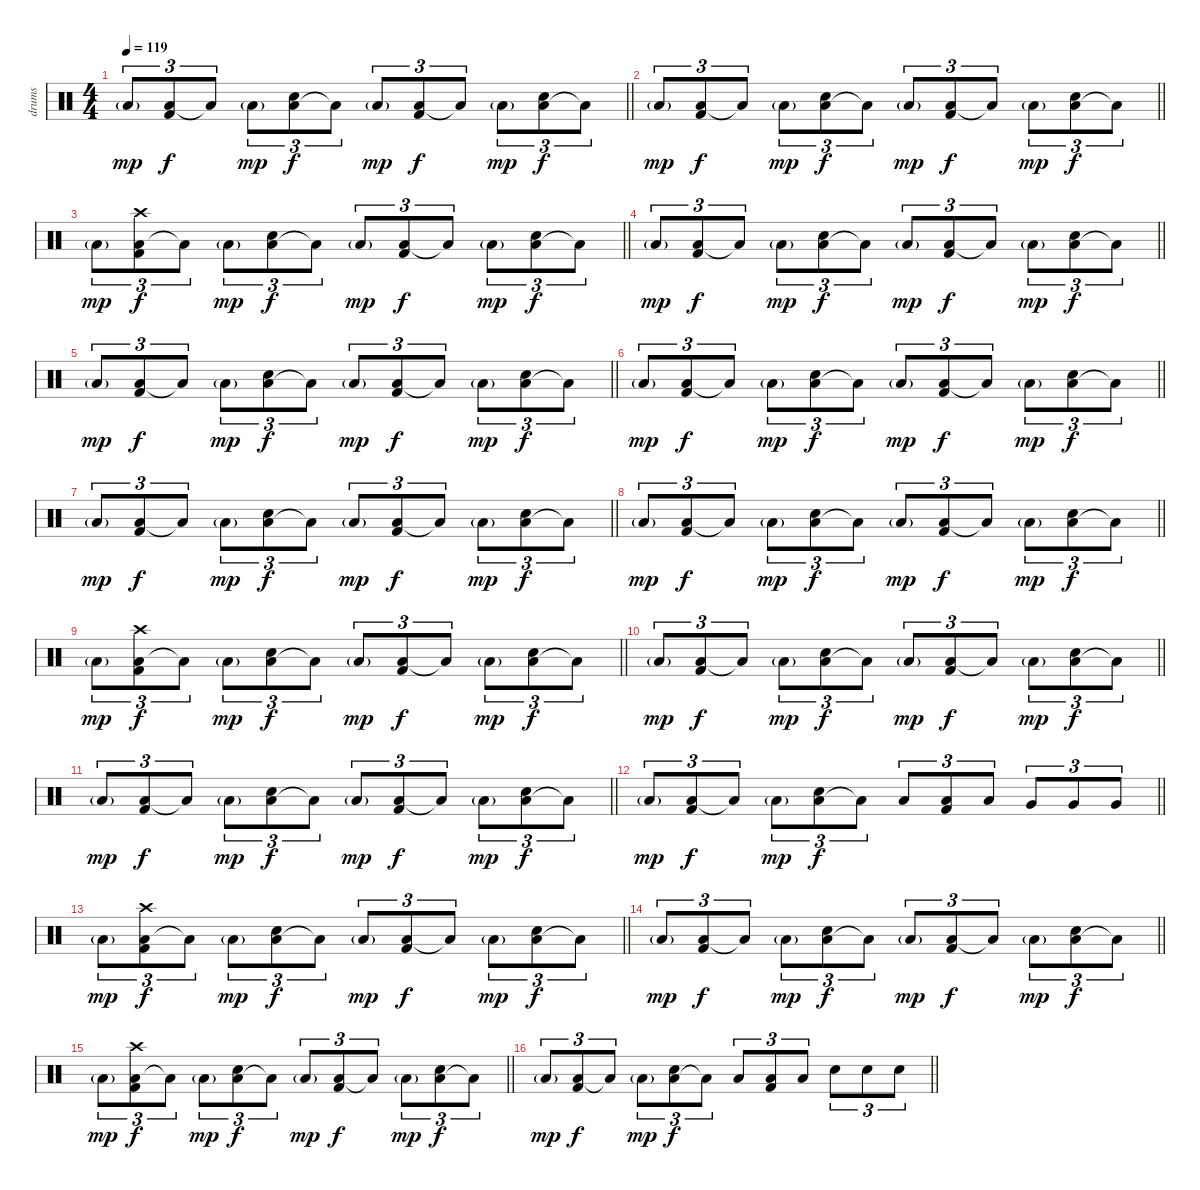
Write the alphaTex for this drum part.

\track ("drums" "drums") {instrument percussion}
\staff {score}
\articulation defaults
\ts (4 4)
\tempo 119
\clef neutral
\barLineRight lightlight
\ks c "Low Floor Tom (hit)"{g}.8{tu (3 2) dy mp}
("Low Floor Tom (hit)" "Kick (hit) 2").8{tu (3 2) dy f} "Low Floor Tom (hit)"{t}.8{tu (3 2)} "Low Floor Tom (hit)"{g}.8{tu (3 2) dy mp} ("Low Floor Tom (hit)" "Electric Snare (hit)").8{tu (3 2) dy f} "Low Floor Tom (hit)"{t}.8{tu (3 2)} "Low Floor Tom (hit)"{g}.8{tu (3 2) dy mp} ("Low Floor Tom (hit)" "Kick (hit) 2").8{tu (3 2) dy f} "Low Floor Tom (hit)"{t}.8{tu (3 2)} "Low Floor Tom (hit)"{g}.8{tu (3 2) dy mp} ("Low Floor Tom (hit)" "Electric Snare (hit)").8{tu (3 2) dy f} "Low Floor Tom (hit)"{t}.8{tu (3 2)} |
\barLineRight lightlight "Low Floor Tom (hit)"{g}.8{tu (3 2) dy mp}
("Low Floor Tom (hit)" "Kick (hit) 2").8{tu (3 2) dy f} "Low Floor Tom (hit)"{t}.8{tu (3 2)} "Low Floor Tom (hit)"{g}.8{tu (3 2) dy mp} ("Low Floor Tom (hit)" "Electric Snare (hit)").8{tu (3 2) dy f} "Low Floor Tom (hit)"{t}.8{tu (3 2)} "Low Floor Tom (hit)"{g}.8{tu (3 2) dy mp} ("Low Floor Tom (hit)" "Kick (hit) 2").8{tu (3 2) dy f} "Low Floor Tom (hit)"{t}.8{tu (3 2)} "Low Floor Tom (hit)"{g}.8{tu (3 2) dy mp} ("Low Floor Tom (hit)" "Electric Snare (hit)").8{tu (3 2) dy f} "Low Floor Tom (hit)"{t}.8{tu (3 2)} |
\barLineRight lightlight "Low Floor Tom (hit)"{g}.8{tu (3 2) dy mp}
("Low Floor Tom (hit)" "Kick (hit) 2" "Crash high (hit)").8{tu (3 2) dy f} "Low Floor Tom (hit)"{t}.8{tu (3 2)} "Low Floor Tom (hit)"{g}.8{tu (3 2) dy mp} ("Low Floor Tom (hit)" "Electric Snare (hit)").8{tu (3 2) dy f} "Low Floor Tom (hit)"{t}.8{tu (3 2)} "Low Floor Tom (hit)"{g}.8{tu (3 2) dy mp} ("Low Floor Tom (hit)" "Kick (hit) 2").8{tu (3 2) dy f} "Low Floor Tom (hit)"{t}.8{tu (3 2)} "Low Floor Tom (hit)"{g}.8{tu (3 2) dy mp} ("Low Floor Tom (hit)" "Electric Snare (hit)").8{tu (3 2) dy f} "Low Floor Tom (hit)"{t}.8{tu (3 2)} |
\barLineRight lightlight "Low Floor Tom (hit)"{g}.8{tu (3 2) dy mp}
("Low Floor Tom (hit)" "Kick (hit) 2").8{tu (3 2) dy f} "Low Floor Tom (hit)"{t}.8{tu (3 2)} "Low Floor Tom (hit)"{g}.8{tu (3 2) dy mp} ("Low Floor Tom (hit)" "Electric Snare (hit)").8{tu (3 2) dy f} "Low Floor Tom (hit)"{t}.8{tu (3 2)} "Low Floor Tom (hit)"{g}.8{tu (3 2) dy mp} ("Low Floor Tom (hit)" "Kick (hit) 2").8{tu (3 2) dy f} "Low Floor Tom (hit)"{t}.8{tu (3 2)} "Low Floor Tom (hit)"{g}.8{tu (3 2) dy mp} ("Low Floor Tom (hit)" "Electric Snare (hit)").8{tu (3 2) dy f} "Low Floor Tom (hit)"{t}.8{tu (3 2)} |
\barLineRight lightlight "Low Floor Tom (hit)"{g}.8{tu (3 2) dy mp}
("Low Floor Tom (hit)" "Kick (hit) 2").8{tu (3 2) dy f} "Low Floor Tom (hit)"{t}.8{tu (3 2)} "Low Floor Tom (hit)"{g}.8{tu (3 2) dy mp} ("Low Floor Tom (hit)" "Electric Snare (hit)").8{tu (3 2) dy f} "Low Floor Tom (hit)"{t}.8{tu (3 2)} "Low Floor Tom (hit)"{g}.8{tu (3 2) dy mp} ("Low Floor Tom (hit)" "Kick (hit) 2").8{tu (3 2) dy f} "Low Floor Tom (hit)"{t}.8{tu (3 2)} "Low Floor Tom (hit)"{g}.8{tu (3 2) dy mp} ("Low Floor Tom (hit)" "Electric Snare (hit)").8{tu (3 2) dy f} "Low Floor Tom (hit)"{t}.8{tu (3 2)} |
\barLineRight lightlight "Low Floor Tom (hit)"{g}.8{tu (3 2) dy mp}
("Low Floor Tom (hit)" "Kick (hit) 2").8{tu (3 2) dy f} "Low Floor Tom (hit)"{t}.8{tu (3 2)} "Low Floor Tom (hit)"{g}.8{tu (3 2) dy mp} ("Low Floor Tom (hit)" "Electric Snare (hit)").8{tu (3 2) dy f} "Low Floor Tom (hit)"{t}.8{tu (3 2)} "Low Floor Tom (hit)"{g}.8{tu (3 2) dy mp} ("Low Floor Tom (hit)" "Kick (hit) 2").8{tu (3 2) dy f} "Low Floor Tom (hit)"{t}.8{tu (3 2)} "Low Floor Tom (hit)"{g}.8{tu (3 2) dy mp} ("Low Floor Tom (hit)" "Electric Snare (hit)").8{tu (3 2) dy f} "Low Floor Tom (hit)"{t}.8{tu (3 2)} |
\barLineRight lightlight "Low Floor Tom (hit)"{g}.8{tu (3 2) dy mp}
("Low Floor Tom (hit)" "Kick (hit) 2").8{tu (3 2) dy f} "Low Floor Tom (hit)"{t}.8{tu (3 2)} "Low Floor Tom (hit)"{g}.8{tu (3 2) dy mp} ("Low Floor Tom (hit)" "Electric Snare (hit)").8{tu (3 2) dy f} "Low Floor Tom (hit)"{t}.8{tu (3 2)} "Low Floor Tom (hit)"{g}.8{tu (3 2) dy mp} ("Low Floor Tom (hit)" "Kick (hit) 2").8{tu (3 2) dy f} "Low Floor Tom (hit)"{t}.8{tu (3 2)} "Low Floor Tom (hit)"{g}.8{tu (3 2) dy mp} ("Low Floor Tom (hit)" "Electric Snare (hit)").8{tu (3 2) dy f} "Low Floor Tom (hit)"{t}.8{tu (3 2)} |
\barLineRight lightlight "Low Floor Tom (hit)"{g}.8{tu (3 2) dy mp}
("Low Floor Tom (hit)" "Kick (hit) 2").8{tu (3 2) dy f} "Low Floor Tom (hit)"{t}.8{tu (3 2)} "Low Floor Tom (hit)"{g}.8{tu (3 2) dy mp} ("Low Floor Tom (hit)" "Electric Snare (hit)").8{tu (3 2) dy f} "Low Floor Tom (hit)"{t}.8{tu (3 2)} "Low Floor Tom (hit)"{g}.8{tu (3 2) dy mp} ("Low Floor Tom (hit)" "Kick (hit) 2").8{tu (3 2) dy f} "Low Floor Tom (hit)"{t}.8{tu (3 2)} "Low Floor Tom (hit)"{g}.8{tu (3 2) dy mp} ("Low Floor Tom (hit)" "Electric Snare (hit)").8{tu (3 2) dy f} "Low Floor Tom (hit)"{t}.8{tu (3 2)} |
\barLineRight lightlight "Low Floor Tom (hit)"{g}.8{tu (3 2) dy mp}
("Low Floor Tom (hit)" "Kick (hit) 2" "Crash high (hit)").8{tu (3 2) dy f} "Low Floor Tom (hit)"{t}.8{tu (3 2)} "Low Floor Tom (hit)"{g}.8{tu (3 2) dy mp} ("Low Floor Tom (hit)" "Electric Snare (hit)").8{tu (3 2) dy f} "Low Floor Tom (hit)"{t}.8{tu (3 2)} "Low Floor Tom (hit)"{g}.8{tu (3 2) dy mp} ("Low Floor Tom (hit)" "Kick (hit) 2").8{tu (3 2) dy f} "Low Floor Tom (hit)"{t}.8{tu (3 2)} "Low Floor Tom (hit)"{g}.8{tu (3 2) dy mp} ("Low Floor Tom (hit)" "Electric Snare (hit)").8{tu (3 2) dy f} "Low Floor Tom (hit)"{t}.8{tu (3 2)} |
\barLineRight lightlight "Low Floor Tom (hit)"{g}.8{tu (3 2) dy mp}
("Low Floor Tom (hit)" "Kick (hit) 2").8{tu (3 2) dy f} "Low Floor Tom (hit)"{t}.8{tu (3 2)} "Low Floor Tom (hit)"{g}.8{tu (3 2) dy mp} ("Low Floor Tom (hit)" "Electric Snare (hit)").8{tu (3 2) dy f} "Low Floor Tom (hit)"{t}.8{tu (3 2)} "Low Floor Tom (hit)"{g}.8{tu (3 2) dy mp} ("Low Floor Tom (hit)" "Kick (hit) 2").8{tu (3 2) dy f} "Low Floor Tom (hit)"{t}.8{tu (3 2)} "Low Floor Tom (hit)"{g}.8{tu (3 2) dy mp} ("Low Floor Tom (hit)" "Electric Snare (hit)").8{tu (3 2) dy f} "Low Floor Tom (hit)"{t}.8{tu (3 2)} |
\barLineRight lightlight "Low Floor Tom (hit)"{g}.8{tu (3 2) dy mp}
("Low Floor Tom (hit)" "Kick (hit) 2").8{tu (3 2) dy f} "Low Floor Tom (hit)"{t}.8{tu (3 2)} "Low Floor Tom (hit)"{g}.8{tu (3 2) dy mp} ("Low Floor Tom (hit)" "Electric Snare (hit)").8{tu (3 2) dy f} "Low Floor Tom (hit)"{t}.8{tu (3 2)} "Low Floor Tom (hit)"{g}.8{tu (3 2) dy mp} ("Low Floor Tom (hit)" "Kick (hit) 2").8{tu (3 2) dy f} "Low Floor Tom (hit)"{t}.8{tu (3 2)} "Low Floor Tom (hit)"{g}.8{tu (3 2) dy mp} ("Low Floor Tom (hit)" "Electric Snare (hit)").8{tu (3 2) dy f} "Low Floor Tom (hit)"{t}.8{tu (3 2)} |
\barLineRight lightlight "Low Floor Tom (hit)"{g}.8{tu (3 2) dy mp}
("Low Floor Tom (hit)" "Kick (hit) 2").8{tu (3 2) dy f} "Low Floor Tom (hit)"{t}.8{tu (3 2)} "Low Floor Tom (hit)"{g}.8{tu (3 2) dy mp} ("Low Floor Tom (hit)" "Electric Snare (hit)").8{tu (3 2) dy f} "Low Floor Tom (hit)"{t}.8{tu (3 2)} "Low Floor Tom (hit)".8{tu (3 2)} ("Low Floor Tom (hit)" "Kick (hit) 2").8{tu (3 2)} "Low Floor Tom (hit)".8{tu (3 2)} "Very Low Tom (hit)".8{tu (3 2)} "Very Low Tom (hit)".8{tu (3 2)} "Very Low Tom (hit)".8{tu (3 2)} |
\barLineRight lightlight "Low Floor Tom (hit)"{g}.8{tu (3 2) dy mp}
("Low Floor Tom (hit)" "Kick (hit) 2" "Crash high (hit)").8{tu (3 2) dy f} "Low Floor Tom (hit)"{t}.8{tu (3 2)} "Low Floor Tom (hit)"{g}.8{tu (3 2) dy mp} ("Low Floor Tom (hit)" "Electric Snare (hit)").8{tu (3 2) dy f} "Low Floor Tom (hit)"{t}.8{tu (3 2)} "Low Floor Tom (hit)"{g}.8{tu (3 2) dy mp} ("Low Floor Tom (hit)" "Kick (hit) 2").8{tu (3 2) dy f} "Low Floor Tom (hit)"{t}.8{tu (3 2)} "Low Floor Tom (hit)"{g}.8{tu (3 2) dy mp} ("Low Floor Tom (hit)" "Electric Snare (hit)").8{tu (3 2) dy f} "Low Floor Tom (hit)"{t}.8{tu (3 2)} |
\barLineRight lightlight "Low Floor Tom (hit)"{g}.8{tu (3 2) dy mp}
("Low Floor Tom (hit)" "Kick (hit) 2").8{tu (3 2) dy f} "Low Floor Tom (hit)"{t}.8{tu (3 2)} "Low Floor Tom (hit)"{g}.8{tu (3 2) dy mp} ("Low Floor Tom (hit)" "Electric Snare (hit)").8{tu (3 2) dy f} "Low Floor Tom (hit)"{t}.8{tu (3 2)} "Low Floor Tom (hit)"{g}.8{tu (3 2) dy mp} ("Low Floor Tom (hit)" "Kick (hit) 2").8{tu (3 2) dy f} "Low Floor Tom (hit)"{t}.8{tu (3 2)} "Low Floor Tom (hit)"{g}.8{tu (3 2) dy mp} ("Low Floor Tom (hit)" "Electric Snare (hit)").8{tu (3 2) dy f} "Low Floor Tom (hit)"{t}.8{tu (3 2)} |
\barLineRight lightlight "Low Floor Tom (hit)"{g}.8{tu (3 2) dy mp}
("Low Floor Tom (hit)" "Kick (hit) 2" "Crash high (hit)").8{tu (3 2) dy f} "Low Floor Tom (hit)"{t}.8{tu (3 2)} "Low Floor Tom (hit)"{g}.8{tu (3 2) dy mp} ("Low Floor Tom (hit)" "Electric Snare (hit)").8{tu (3 2) dy f} "Low Floor Tom (hit)"{t}.8{tu (3 2)} "Low Floor Tom (hit)"{g}.8{tu (3 2) dy mp} ("Low Floor Tom (hit)" "Kick (hit) 2").8{tu (3 2) dy f} "Low Floor Tom (hit)"{t}.8{tu (3 2)} "Low Floor Tom (hit)"{g}.8{tu (3 2) dy mp} ("Low Floor Tom (hit)" "Electric Snare (hit)").8{tu (3 2) dy f} "Low Floor Tom (hit)"{t}.8{tu (3 2)} |
\barLineRight lightlight "Low Floor Tom (hit)"{g}.8{tu (3 2) dy mp}
("Low Floor Tom (hit)" "Kick (hit) 2").8{tu (3 2) dy f} "Low Floor Tom (hit)"{t}.8{tu (3 2)} "Low Floor Tom (hit)"{g}.8{tu (3 2) dy mp} ("Low Floor Tom (hit)" "Electric Snare (hit)").8{tu (3 2) dy f} "Low Floor Tom (hit)"{t}.8{tu (3 2)} "Low Floor Tom (hit)".8{tu (3 2)} ("Low Floor Tom (hit)" "Kick (hit) 2").8{tu (3 2)} "Low Floor Tom (hit)".8{tu (3 2)} "Electric Snare (hit)".8{tu (3 2)} "Electric Snare (hit)".8{tu (3 2)} "Electric Snare (hit)".8{tu (3 2)}
